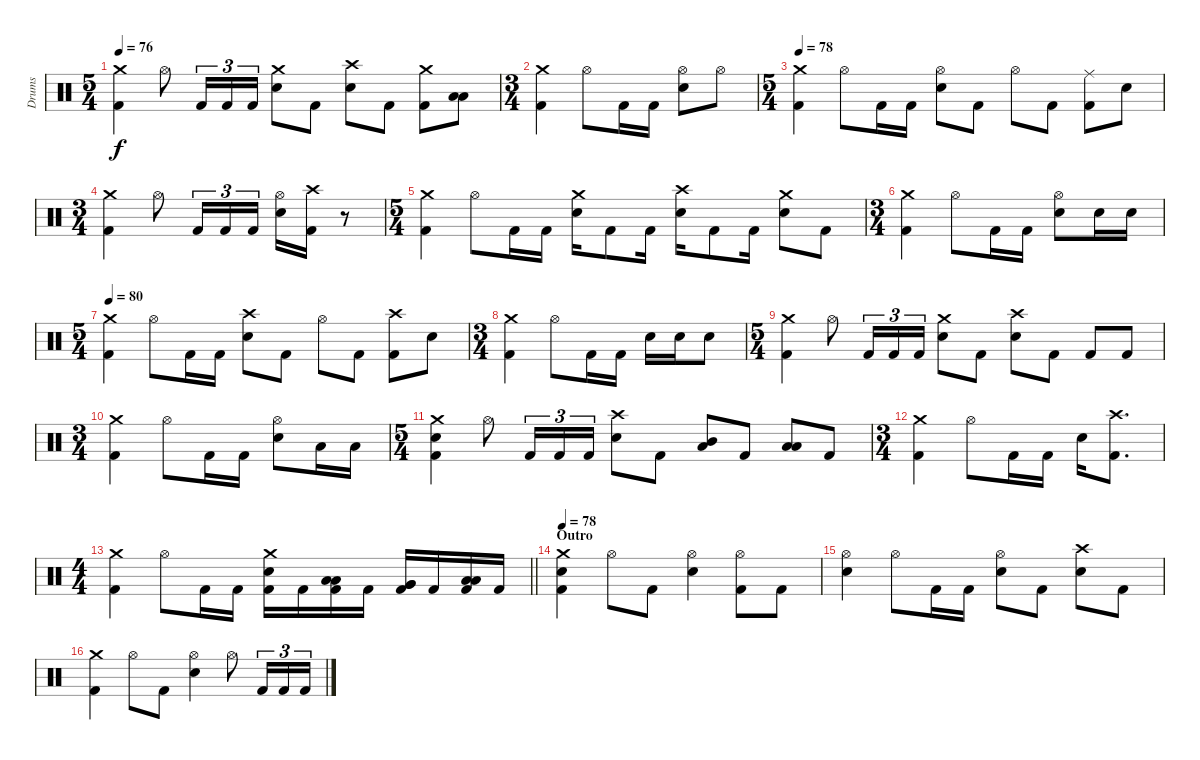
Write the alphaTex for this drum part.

\track ("Drums" "Drums") {instrument percussion}
\staff {score}
\articulation defaults
\ts (5 4)
\tempo 76
\clef neutral
\ks c
("Crash medium (hit)" "Kick (hit) 2").4{dy f} "Hi-Hat (open)".8 "Kick (hit) 2".16{tu (3 2)} "Kick (hit) 2".16{tu (3 2)} "Kick (hit) 2".16{tu (3 2)} ("Crash medium (hit)" "Electric Snare (hit)").8 "Kick (hit) 2".8 ("Crash high (hit)" "Electric Snare (hit)").8 "Kick (hit) 2".8 ("Crash medium (hit)" "Kick (hit) 2").8 ("Low Tom (hit)" "Low Tom (hit)").8 |
\ts (3 4)
("Crash medium (hit)" "Kick (hit) 2").4 "Hi-Hat (open)".8 "Kick (hit) 2".16 "Kick (hit) 2".16 ("Hi-Hat (open)" "Electric Snare (hit)").8 "Hi-Hat (open)".8 |
\ts (5 4)
\tempo 78
("Crash medium (hit)" "Kick (hit) 2").4 "Hi-Hat (open)".8 "Kick (hit) 2".16 "Kick (hit) 2".16 ("Hi-Hat (open)" "Electric Snare (hit)").8 "Kick (hit) 2".8 "Hi-Hat (open)".8 "Kick (hit) 2".8 ("Ride (middle)" "Kick (hit) 2").8 "Electric Snare (hit)".8 |
\ts (3 4)
("Crash medium (hit)" "Kick (hit) 2").4 "Hi-Hat (open)".8 "Kick (hit) 2".16{tu (3 2)} "Kick (hit) 2".16{tu (3 2)} "Kick (hit) 2".16{tu (3 2)} ("Hi-Hat (open)" "Electric Snare (hit)").16 ("Crash high (hit)" "Kick (hit) 2").16 r.8 |
\ts (5 4)
("Crash medium (hit)" "Kick (hit) 2").4 "Hi-Hat (open)".8 "Kick (hit) 2".16 "Kick (hit) 2".16 ("Crash medium (hit)" "Electric Snare (hit)").16 "Kick (hit) 2".8 "Kick (hit) 2".16 ("Crash high (hit)" "Electric Snare (hit)").16 "Kick (hit) 2".8 "Kick (hit) 2".16 ("Crash medium (hit)" "Electric Snare (hit)").8 "Kick (hit) 2".8 |
\ts (3 4)
("Crash medium (hit)" "Kick (hit) 2").4 "Hi-Hat (open)".8 "Kick (hit) 2".16 "Kick (hit) 2".16 ("Hi-Hat (open)" "Electric Snare (hit)").8 "Electric Snare (hit)".16 "Electric Snare (hit)".16 |
\ts (5 4)
\tempo 80
("Crash medium (hit)" "Kick (hit) 2").4 "Hi-Hat (open)".8 "Kick (hit) 2".16 "Kick (hit) 2".16 ("Crash high (hit)" "Electric Snare (hit)").8 "Kick (hit) 2".8 "Hi-Hat (open)".8 "Kick (hit) 2".8 ("Crash high (hit)" "Kick (hit) 2").8 "Electric Snare (hit)".8 |
\ts (3 4)
("Crash medium (hit)" "Kick (hit) 2").4 "Hi-Hat (open)".8 "Kick (hit) 2".16 "Kick (hit) 2".16 "Electric Snare (hit)".16 "Electric Snare (hit)".16 "Electric Snare (hit)".8 |
\ts (5 4)
("Crash medium (hit)" "Kick (hit) 2").4 "Hi-Hat (open)".8 "Kick (hit) 2".16{tu (3 2)} "Kick (hit) 2".16{tu (3 2)} "Kick (hit) 2".16{tu (3 2)} ("Crash medium (hit)" "Electric Snare (hit)").8 "Kick (hit) 2".8 ("Crash high (hit)" "Electric Snare (hit)").8 "Kick (hit) 2".8 "Kick (hit) 2".8 "Kick (hit) 2".8 |
\ts (3 4)
("Crash medium (hit)" "Kick (hit) 2").4 "Hi-Hat (open)".8 "Kick (hit) 2".16 "Kick (hit) 2".16 ("Hi-Hat (open)" "Electric Snare (hit)").8 "Low Floor Tom (hit)".16 "Low Floor Tom (hit)".16 |
\ts (5 4)
("Crash medium (hit)" "Electric Snare (hit)" "Kick (hit) 2").4 "Hi-Hat (open)".8 "Kick (hit) 2".16{tu (3 2)} "Kick (hit) 2".16{tu (3 2)} "Kick (hit) 2".16{tu (3 2)} ("Crash high (hit)" "Electric Snare (hit)").8 "Kick (hit) 2".8 ("Mid Tom (hit)" "Low Floor Tom (hit)").8{bu 60} "Kick (hit) 2".8 ("Low Tom (hit)" "Low Floor Tom (hit)").8{bu 60} "Kick (hit) 2".8 |
\ts (3 4)
("Crash medium (hit)" "Kick (hit) 2").4 "Hi-Hat (open)".8 "Kick (hit) 2".16 "Kick (hit) 2".16 "Electric Snare (hit)".16 ("Crash high (hit)" "Kick (hit) 2").8{d} |
\ts (4 4)
\barLineRight lightlight
("Crash medium (hit)" "Kick (hit) 2").4 "Hi-Hat (open)".8 "Kick (hit) 2".16 "Kick (hit) 2".16 ("Crash medium (hit)" "Electric Snare (hit)" "Kick (hit) 2").16 "Kick (hit) 2".16 ("Low Floor Tom (hit)" "Low Floor Tom (hit)" "Kick (hit) 2").16 "Kick (hit) 2".16 ("Very Low Tom (hit)" "Very Low Tom (hit)" "Kick (hit) 2").16 "Kick (hit) 2".16 ("Low Floor Tom (hit)" "Low Floor Tom (hit)" "Kick (hit) 2").16 "Kick (hit) 2".16 |
\section ("" "Outro")
\tempo 78
("Crash medium (hit)" "Electric Snare (hit)" "Kick (hit) 2").4 "Hi-Hat (open)".8 "Kick (hit) 2".8 ("Hi-Hat (open)" "Electric Snare (hit)").4 ("Hi-Hat (open)" "Kick (hit) 2").8 "Kick (hit) 2".8 |
("Hi-Hat (open)" "Electric Snare (hit)").4 "Hi-Hat (open)".8 "Kick (hit) 2".16 "Kick (hit) 2".16 ("Hi-Hat (open)" "Electric Snare (hit)").8 "Kick (hit) 2".8 ("Crash high (hit)" "Electric Snare (hit)").8 "Kick (hit) 2".8 |
("Crash medium (hit)" "Kick (hit) 2").4 "Hi-Hat (open)".8 "Kick (hit) 2".8 ("Hi-Hat (open)" "Electric Snare (hit)").4 "Hi-Hat (open)".8 "Kick (hit) 2".16{tu (3 2)} "Kick (hit) 2".16{tu (3 2)} "Kick (hit) 2".16{tu (3 2)}
